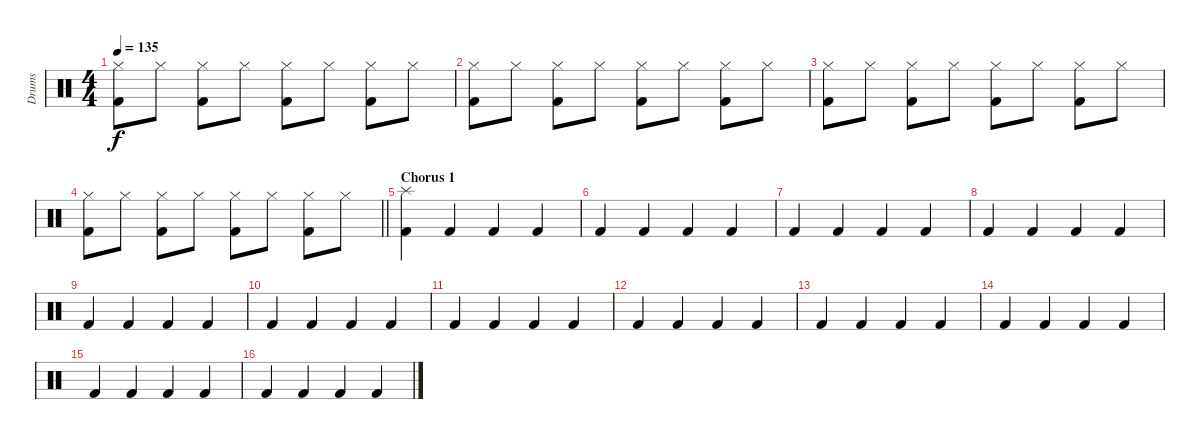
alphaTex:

\track ("Drums" "Drums") {instrument percussion}
\staff {score}
\articulation defaults
\ts (4 4)
\tempo 135
\clef neutral
\ks c
("Hi-Hat (closed)" "Kick (hit) 2").8{dy f} "Hi-Hat (closed)".8 ("Hi-Hat (closed)" "Kick (hit) 2").8 "Hi-Hat (closed)".8 ("Hi-Hat (closed)" "Kick (hit) 2").8 "Hi-Hat (closed)".8 ("Hi-Hat (closed)" "Kick (hit) 2").8 "Hi-Hat (closed)".8 |
("Hi-Hat (closed)" "Kick (hit) 2").8 "Hi-Hat (closed)".8 ("Hi-Hat (closed)" "Kick (hit) 2").8 "Hi-Hat (closed)".8 ("Hi-Hat (closed)" "Kick (hit) 2").8 "Hi-Hat (closed)".8 ("Hi-Hat (closed)" "Kick (hit) 2").8 "Hi-Hat (closed)".8 |
("Hi-Hat (closed)" "Kick (hit) 2").8 "Hi-Hat (closed)".8 ("Hi-Hat (closed)" "Kick (hit) 2").8 "Hi-Hat (closed)".8 ("Hi-Hat (closed)" "Kick (hit) 2").8 "Hi-Hat (closed)".8 ("Hi-Hat (closed)" "Kick (hit) 2").8 "Hi-Hat (closed)".8 |
\barLineRight lightlight
("Hi-Hat (closed)" "Kick (hit) 2").8 "Hi-Hat (closed)".8 ("Hi-Hat (closed)" "Kick (hit) 2").8 "Hi-Hat (closed)".8 ("Hi-Hat (closed)" "Kick (hit) 2").8 "Hi-Hat (closed)".8 ("Hi-Hat (closed)" "Kick (hit) 2").8 "Hi-Hat (closed)".8 |
\section ("" "Chorus 1")
("Splash (hit)" "Kick (hit) 2").4 "Kick (hit) 2".4 "Kick (hit) 2".4 "Kick (hit) 2".4 |
"Kick (hit) 2".4 "Kick (hit) 2".4 "Kick (hit) 2".4 "Kick (hit) 2".4 |
"Kick (hit) 2".4 "Kick (hit) 2".4 "Kick (hit) 2".4 "Kick (hit) 2".4 |
"Kick (hit) 2".4 "Kick (hit) 2".4 "Kick (hit) 2".4 "Kick (hit) 2".4 |
"Kick (hit) 2".4 "Kick (hit) 2".4 "Kick (hit) 2".4 "Kick (hit) 2".4 |
"Kick (hit) 2".4 "Kick (hit) 2".4 "Kick (hit) 2".4 "Kick (hit) 2".4 |
"Kick (hit) 2".4 "Kick (hit) 2".4 "Kick (hit) 2".4 "Kick (hit) 2".4 |
"Kick (hit) 2".4 "Kick (hit) 2".4 "Kick (hit) 2".4 "Kick (hit) 2".4 |
"Kick (hit) 2".4 "Kick (hit) 2".4 "Kick (hit) 2".4 "Kick (hit) 2".4 |
"Kick (hit) 2".4 "Kick (hit) 2".4 "Kick (hit) 2".4 "Kick (hit) 2".4 |
"Kick (hit) 2".4 "Kick (hit) 2".4 "Kick (hit) 2".4 "Kick (hit) 2".4 |
"Kick (hit) 2".4 "Kick (hit) 2".4 "Kick (hit) 2".4 "Kick (hit) 2".4
